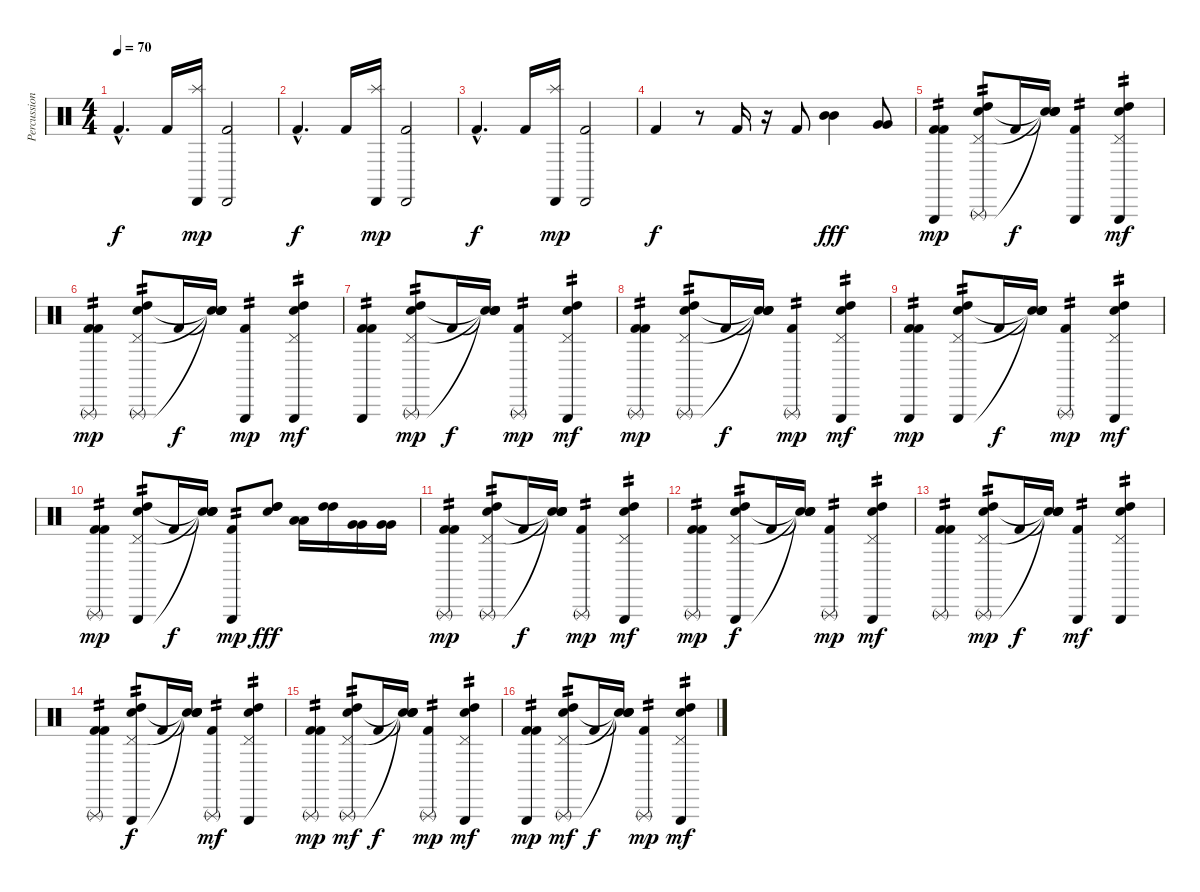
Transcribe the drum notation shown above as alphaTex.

\track ("Percussion" "Percussion") {instrument percussion}
\staff {score}
\articulation defaults
\ts (4 4)
\tempo 70
\clef neutral
\ks c "Kick (hit) 2"{hac}.4{d dy f} "Kick (hit) 2".16
("Splash (hit)" "Cabasa (hit)").16{dy mp} ("Kick (hit) 2" "Cabasa (hit)").2 |
"Kick (hit) 2"{hac}.4{d dy f} "Kick (hit) 2".16 ("Splash (hit)" "Cabasa (hit)").16{dy mp} ("Kick (hit) 2" "Cabasa (hit)").2 |
"Kick (hit) 2"{hac}.4{d dy f} "Kick (hit) 2".16 ("Splash (hit)" "Cabasa (hit)").16{dy mp} ("Kick (hit) 2" "Cabasa (hit)").2 |
"Kick (hit) 2".4{dy f} r.8 "Kick (hit) 2".16 r.16 "Kick (hit) 2".8 ("Mid Tom (hit)" "Mid Tom (hit)").4{dy fff} ("Very Low Tom (hit)" "Very Low Tom (hit)").8 |
("Kick (hit) 2" "Triangle (hit)" "Kick (hit) 2").4{tp 2 dy mp} ("High Tom (hit)" "Pedal Hi-Hat (hit)" "Snare (hit) 2" "Triangle (rnute)").8{tp 2} "Kick (hit) 2".16{dy f} ("Snare (hit)"{t} "Snare (hit)"{t} "Snare (hit)"{t} "Snare (hit)"{t}).16 ("Triangle (hit)" "Kick (hit) 2").4{tp 2} ("High Tom (hit)" "Pedal Hi-Hat (hit)" "Snare (hit) 2" "Triangle (hit)").4{tp 2 dy mf} |
("Kick (hit) 2" "Triangle (rnute)" "Kick (hit) 2").4{tp 2 dy mp} ("High Tom (hit)" "Pedal Hi-Hat (hit)" "Snare (hit) 2" "Triangle (rnute)").8{tp 2} "Kick (hit) 2".16{dy f} ("Snare (hit)"{t} "Snare (hit)"{t} "Snare (hit)"{t} "Snare (hit)"{t}).16 ("Triangle (hit)" "Kick (hit) 2").4{tp 2 dy mp} ("High Tom (hit)" "Pedal Hi-Hat (hit)" "Snare (hit) 2" "Triangle (hit)").4{tp 2 dy mf} |
("Kick (hit) 2" "Triangle (hit)" "Kick (hit) 2").4{tp 2} ("High Tom (hit)" "Pedal Hi-Hat (hit)" "Snare (hit) 2" "Triangle (rnute)").8{tp 2 dy mp} "Kick (hit) 2".16{dy f} ("Snare (hit)"{t} "Snare (hit)"{t} "Snare (hit)"{t} "Snare (hit)"{t}).16 ("Triangle (rnute)" "Kick (hit) 2").4{tp 2 dy mp} ("High Tom (hit)" "Pedal Hi-Hat (hit)" "Snare (hit) 2" "Triangle (hit)").4{tp 2 dy mf} |
("Kick (hit) 2" "Triangle (rnute)" "Kick (hit) 2").4{tp 2 dy mp} ("High Tom (hit)" "Pedal Hi-Hat (hit)" "Snare (hit) 2" "Triangle (rnute)").8{tp 2} "Kick (hit) 2".16{dy f} ("Snare (hit)"{t} "Snare (hit)"{t} "Snare (hit)"{t} "Snare (hit)"{t}).16 ("Triangle (rnute)" "Kick (hit) 2").4{tp 2 dy mp} ("High Tom (hit)" "Pedal Hi-Hat (hit)" "Snare (hit) 2" "Triangle (hit)").4{tp 2 dy mf} |
("Kick (hit) 2" "Triangle (hit)" "Kick (hit) 2").4{tp 2 dy mp} ("High Tom (hit)" "Pedal Hi-Hat (hit)" "Snare (hit) 2" "Triangle (hit)").8{tp 2} "Kick (hit) 2".16{dy f} ("Snare (hit)"{t} "Snare (hit)"{t} "Snare (hit)"{t} "Snare (hit)"{t}).16 ("Triangle (rnute)" "Kick (hit) 2").4{tp 2 dy mp} ("High Tom (hit)" "Pedal Hi-Hat (hit)" "Snare (hit) 2" "Triangle (hit)").4{tp 2 dy mf} |
("Kick (hit) 2" "Triangle (rnute)" "Kick (hit) 2").4{tp 2 dy mp} ("High Tom (hit)" "Pedal Hi-Hat (hit)" "Snare (hit) 2" "Triangle (hit)").8{tp 2} "Kick (hit) 2".16{dy f} ("Snare (hit)"{t} "Snare (hit)"{t} "Snare (hit)"{t} "Snare (hit)"{t}).16 ("Triangle (hit)" "Kick (hit) 2").8{tp 2 dy mp} ("High Tom (hit)" "High Tom (hit)" "Snare (hit) 2").8{dy fff} ("Low Tom (hit)" "Low Tom (hit)").16 ("High Tom (hit)" "High Tom (hit)").16 ("Very Low Tom (hit)" "Very Low Tom (hit)").16 ("Very Low Tom (hit)" "Very Low Tom (hit)").16 |
("Kick (hit) 2" "Triangle (rnute)" "Kick (hit) 2").4{tp 2 dy mp} ("High Tom (hit)" "Pedal Hi-Hat (hit)" "Snare (hit) 2" "Triangle (rnute)").8{tp 2} "Kick (hit) 2".16{dy f} ("Snare (hit)"{t} "Snare (hit)"{t} "Snare (hit)"{t} "Snare (hit)"{t}).16 ("Triangle (rnute)" "Kick (hit) 2").4{tp 2 dy mp} ("High Tom (hit)" "Pedal Hi-Hat (hit)" "Snare (hit) 2" "Triangle (hit)").4{tp 2 dy mf} |
("Kick (hit) 2" "Triangle (rnute)" "Kick (hit) 2").4{tp 2 dy mp} ("High Tom (hit)" "Pedal Hi-Hat (hit)" "Snare (hit) 2" "Triangle (hit)").8{tp 2 dy f} "Kick (hit) 2".16 ("Snare (hit)"{t} "Snare (hit)"{t} "Snare (hit)"{t} "Snare (hit)"{t}).16 ("Triangle (rnute)" "Kick (hit) 2").4{tp 2 dy mp} ("High Tom (hit)" "Pedal Hi-Hat (hit)" "Snare (hit) 2" "Triangle (hit)").4{tp 2 dy mf} |
("Kick (hit) 2" "Triangle (rnute)" "Kick (hit) 2").4{tp 2} ("High Tom (hit)" "Pedal Hi-Hat (hit)" "Snare (hit) 2" "Triangle (rnute)").8{tp 2 dy mp} "Kick (hit) 2".16{dy f} ("Snare (hit)"{t} "Snare (hit)"{t} "Snare (hit)"{t} "Snare (hit)"{t}).16 ("Triangle (hit)" "Kick (hit) 2").4{tp 2 dy mf} ("High Tom (hit)" "Pedal Hi-Hat (hit)" "Snare (hit) 2" "Triangle (hit)").4{tp 2} |
("Kick (hit) 2" "Triangle (rnute)" "Kick (hit) 2").4{tp 2} ("High Tom (hit)" "Pedal Hi-Hat (hit)" "Snare (hit) 2" "Triangle (hit)").8{tp 2 dy f} "Kick (hit) 2".16 ("Snare (hit)"{t} "Snare (hit)"{t} "Snare (hit)"{t} "Snare (hit)"{t}).16 ("Triangle (rnute)" "Kick (hit) 2").4{tp 2 dy mf} ("High Tom (hit)" "Pedal Hi-Hat (hit)" "Snare (hit) 2" "Triangle (hit)").4{tp 2} |
("Kick (hit) 2" "Triangle (rnute)" "Kick (hit) 2").4{tp 2 dy mp} ("High Tom (hit)" "Pedal Hi-Hat (hit)" "Snare (hit) 2" "Triangle (rnute)").8{tp 2 dy mf} "Kick (hit) 2".16{dy f} ("Snare (hit)"{t} "Snare (hit)"{t} "Snare (hit)"{t} "Snare (hit)"{t}).16 ("Triangle (rnute)" "Kick (hit) 2").4{tp 2 dy mp} ("High Tom (hit)" "Pedal Hi-Hat (hit)" "Snare (hit) 2" "Triangle (hit)").4{tp 2 dy mf} |
("Kick (hit) 2" "Triangle (hit)" "Kick (hit) 2").4{tp 2 dy mp} ("High Tom (hit)" "Pedal Hi-Hat (hit)" "Snare (hit) 2" "Triangle (rnute)").8{tp 2 dy mf} "Kick (hit) 2".16{dy f} ("Snare (hit)"{t} "Snare (hit)"{t} "Snare (hit)"{t} "Snare (hit)"{t}).16 ("Triangle (rnute)" "Kick (hit) 2").4{tp 2 dy mp} ("High Tom (hit)" "Pedal Hi-Hat (hit)" "Snare (hit) 2" "Triangle (hit)").4{tp 2 dy mf}
